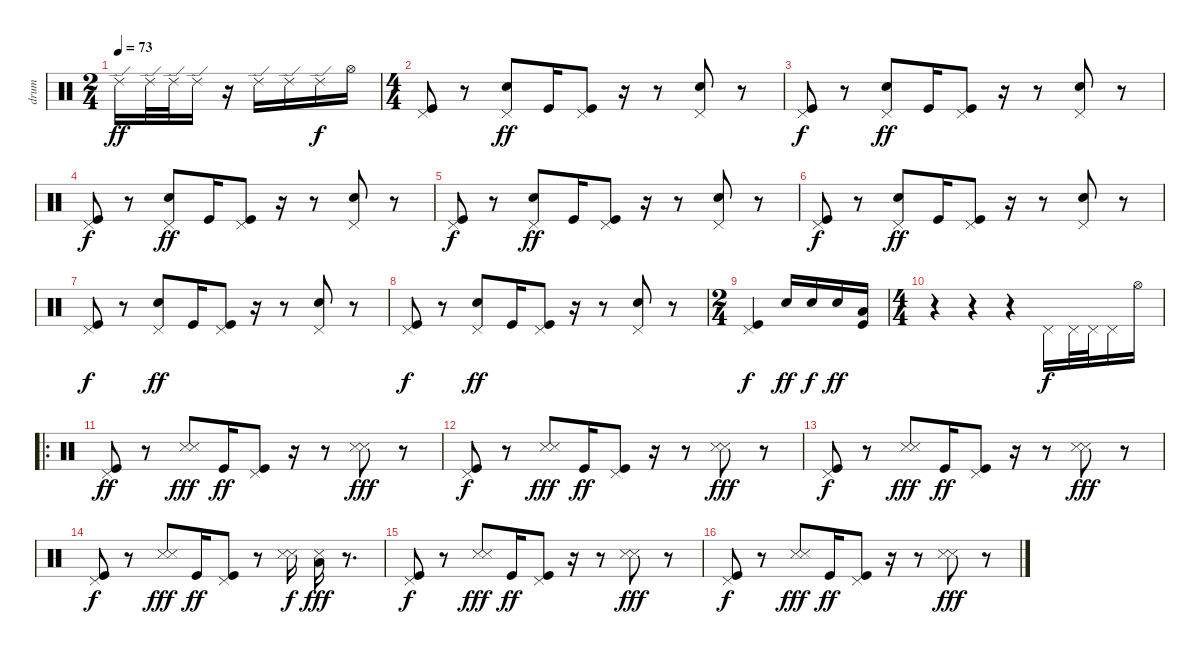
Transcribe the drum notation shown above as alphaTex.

\track ("drum" "drum") {instrument percussion}
\staff {score}
\articulation defaults
\ts (2 4)
\tempo 73
\clef neutral
\ks c "Ride (edge) 2".16{dy ff} "Ride (edge) 2".32 "Ride (edge) 2".32 "Ride (edge) 2".16
r.16 "Ride (edge) 2".16 "Ride (edge) 2".16 "Ride (edge) 2".16{dy f} "Hi-Hat (open)".16 |
\ts (4 4)
("Pedal Hi-Hat (hit)" "Kick (hit)").8 r.8 ("Pedal Hi-Hat (hit)" "Snare (hit) 2").8{dy ff} "Kick (hit)".16 ("Pedal Hi-Hat (hit)" "Kick (hit)").8 r.16 r.8 ("Pedal Hi-Hat (hit)" "Snare (hit) 2").8 r.8 |
("Pedal Hi-Hat (hit)" "Kick (hit)").8{dy f} r.8 ("Pedal Hi-Hat (hit)" "Snare (hit) 2").8{dy ff} "Kick (hit)".16 ("Pedal Hi-Hat (hit)" "Kick (hit)").8 r.16 r.8 ("Pedal Hi-Hat (hit)" "Snare (hit) 2").8 r.8 |
("Pedal Hi-Hat (hit)" "Kick (hit)").8{dy f} r.8 ("Pedal Hi-Hat (hit)" "Snare (hit) 2").8{dy ff} "Kick (hit)".16 ("Pedal Hi-Hat (hit)" "Kick (hit)").8 r.16 r.8 ("Pedal Hi-Hat (hit)" "Snare (hit) 2").8 r.8 |
("Pedal Hi-Hat (hit)" "Kick (hit)").8{dy f} r.8 ("Pedal Hi-Hat (hit)" "Snare (hit) 2").8{dy ff} "Kick (hit)".16 ("Pedal Hi-Hat (hit)" "Kick (hit)").8 r.16 r.8 ("Pedal Hi-Hat (hit)" "Snare (hit) 2").8 r.8 |
("Pedal Hi-Hat (hit)" "Kick (hit)").8{dy f} r.8 ("Pedal Hi-Hat (hit)" "Snare (hit) 2").8{dy ff} "Kick (hit)".16 ("Pedal Hi-Hat (hit)" "Kick (hit)").8 r.16 r.8 ("Pedal Hi-Hat (hit)" "Snare (hit) 2").8 r.8 |
("Pedal Hi-Hat (hit)" "Kick (hit)").8{dy f} r.8 ("Pedal Hi-Hat (hit)" "Snare (hit) 2").8{dy ff} "Kick (hit)".16 ("Pedal Hi-Hat (hit)" "Kick (hit)").8 r.16 r.8 ("Pedal Hi-Hat (hit)" "Snare (hit) 2").8 r.8 |
("Pedal Hi-Hat (hit)" "Kick (hit)").8{dy f} r.8 ("Pedal Hi-Hat (hit)" "Snare (hit) 2").8{dy ff} "Kick (hit)".16 ("Pedal Hi-Hat (hit)" "Kick (hit)").8 r.16 r.8 ("Pedal Hi-Hat (hit)" "Snare (hit) 2").8 r.8 |
\ts (2 4)
("Pedal Hi-Hat (hit)" "Kick (hit)").4{dy f} "Snare (hit) 2".16{dy ff} "Snare (hit) 2".16{dy f} "Snare (hit) 2".16{dy ff} ("Low Floor Tom (hit)" "Kick (hit)").16 |
\ts (4 4)
r.4 r.4 r.4 "Pedal Hi-Hat (hit)".16{dy f} "Pedal Hi-Hat (hit)".32 "Pedal Hi-Hat (hit)".32 "Pedal Hi-Hat (hit)".16 "Hi-Hat (open)".16 |
\ro
("Pedal Hi-Hat (hit)" "Kick (hit)").8{dy ff volume 16} r.8 ("Snare (side stick) 3" "Snare (side stick) 3").8{dy fff} "Kick (hit)".16{dy ff} ("Pedal Hi-Hat (hit)" "Kick (hit)").8 r.16 r.8 ("Snare (side stick) 3" "Snare (side stick) 3").8{dy fff} r.8 |
("Pedal Hi-Hat (hit)" "Kick (hit)").8{dy f} r.8 ("Snare (side stick) 3" "Snare (side stick) 3").8{dy fff} "Kick (hit)".16{dy ff} ("Pedal Hi-Hat (hit)" "Kick (hit)").8 r.16 r.8 ("Snare (side stick) 3" "Snare (side stick) 3").8{dy fff} r.8 |
("Pedal Hi-Hat (hit)" "Kick (hit)").8{dy f} r.8 ("Snare (side stick) 3" "Snare (side stick) 3").8{dy fff} "Kick (hit)".16{dy ff} ("Pedal Hi-Hat (hit)" "Kick (hit)").8 r.16 r.8 ("Snare (side stick) 3" "Snare (side stick) 3").8{dy fff} r.8 |
("Pedal Hi-Hat (hit)" "Kick (hit)").8{dy f} r.8 ("Snare (side stick) 3" "Snare (side stick) 3").8{dy fff} "Kick (hit)".16{dy ff} ("Pedal Hi-Hat (hit)" "Kick (hit)").8 r.8 ("Snare (side stick) 3" "Snare (side stick) 3").16{dy f} ("Low Floor Tom (hit)" "Snare (side stick) 3").16{dy fff} r.8{d} |
("Pedal Hi-Hat (hit)" "Kick (hit)").8{dy f} r.8 ("Snare (side stick) 3" "Snare (side stick) 3").8{dy fff} "Kick (hit)".16{dy ff} ("Pedal Hi-Hat (hit)" "Kick (hit)").8 r.16 r.8 ("Snare (side stick) 3" "Snare (side stick) 3").8{dy fff} r.8 |
("Pedal Hi-Hat (hit)" "Kick (hit)").8{dy f} r.8 ("Snare (side stick) 3" "Snare (side stick) 3").8{dy fff} "Kick (hit)".16{dy ff} ("Pedal Hi-Hat (hit)" "Kick (hit)").8 r.16 r.8 ("Snare (side stick) 3" "Snare (side stick) 3").8{dy fff} r.8
